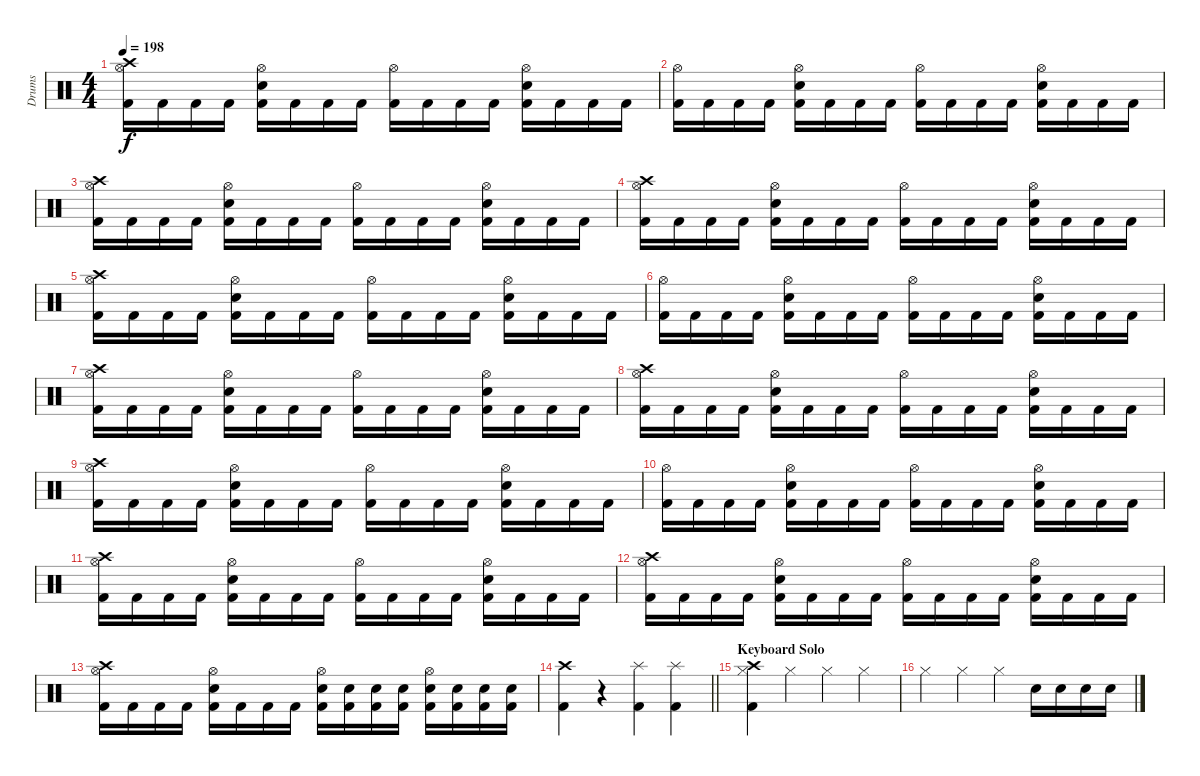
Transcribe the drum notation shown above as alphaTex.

\track ("Drums" "Drums") {instrument percussion}
\staff {score}
\articulation defaults
\ts (4 4)
\tempo 198
\clef neutral
\ks c
("Crash high (hit)" "Hi-Hat (open)" "Kick (hit) 2").16{dy f} "Kick (hit) 2".16 "Kick (hit) 2".16 "Kick (hit) 2".16 ("Hi-Hat (open)" "Snare (hit) 2" "Kick (hit) 2").16 "Kick (hit) 2".16 "Kick (hit) 2".16 "Kick (hit) 2".16 ("Hi-Hat (open)" "Kick (hit) 2").16 "Kick (hit) 2".16 "Kick (hit) 2".16 "Kick (hit) 2".16 ("Hi-Hat (open)" "Snare (hit) 2" "Kick (hit) 2").16 "Kick (hit) 2".16 "Kick (hit) 2".16 "Kick (hit) 2".16 |
("Hi-Hat (open)" "Kick (hit) 2").16 "Kick (hit) 2".16 "Kick (hit) 2".16 "Kick (hit) 2".16 ("Hi-Hat (open)" "Snare (hit) 2" "Kick (hit) 2").16 "Kick (hit) 2".16 "Kick (hit) 2".16 "Kick (hit) 2".16 ("Hi-Hat (open)" "Kick (hit) 2").16 "Kick (hit) 2".16 "Kick (hit) 2".16 "Kick (hit) 2".16 ("Hi-Hat (open)" "Snare (hit) 2" "Kick (hit) 2").16 "Kick (hit) 2".16 "Kick (hit) 2".16 "Kick (hit) 2".16 |
("Crash high (hit)" "Hi-Hat (open)" "Kick (hit) 2").16 "Kick (hit) 2".16 "Kick (hit) 2".16 "Kick (hit) 2".16 ("Hi-Hat (open)" "Snare (hit) 2" "Kick (hit) 2").16 "Kick (hit) 2".16 "Kick (hit) 2".16 "Kick (hit) 2".16 ("Hi-Hat (open)" "Kick (hit) 2").16 "Kick (hit) 2".16 "Kick (hit) 2".16 "Kick (hit) 2".16 ("Hi-Hat (open)" "Snare (hit) 2" "Kick (hit) 2").16 "Kick (hit) 2".16 "Kick (hit) 2".16 "Kick (hit) 2".16 |
("Crash high (hit)" "Hi-Hat (open)" "Kick (hit) 2").16 "Kick (hit) 2".16 "Kick (hit) 2".16 "Kick (hit) 2".16 ("Hi-Hat (open)" "Snare (hit) 2" "Kick (hit) 2").16 "Kick (hit) 2".16 "Kick (hit) 2".16 "Kick (hit) 2".16 ("Hi-Hat (open)" "Kick (hit) 2").16 "Kick (hit) 2".16 "Kick (hit) 2".16 "Kick (hit) 2".16 ("Hi-Hat (open)" "Snare (hit) 2" "Kick (hit) 2").16 "Kick (hit) 2".16 "Kick (hit) 2".16 "Kick (hit) 2".16 |
("Crash high (hit)" "Hi-Hat (open)" "Kick (hit) 2").16 "Kick (hit) 2".16 "Kick (hit) 2".16 "Kick (hit) 2".16 ("Hi-Hat (open)" "Snare (hit) 2" "Kick (hit) 2").16 "Kick (hit) 2".16 "Kick (hit) 2".16 "Kick (hit) 2".16 ("Hi-Hat (open)" "Kick (hit) 2").16 "Kick (hit) 2".16 "Kick (hit) 2".16 "Kick (hit) 2".16 ("Hi-Hat (open)" "Snare (hit) 2" "Kick (hit) 2").16 "Kick (hit) 2".16 "Kick (hit) 2".16 "Kick (hit) 2".16 |
("Hi-Hat (open)" "Kick (hit) 2").16 "Kick (hit) 2".16 "Kick (hit) 2".16 "Kick (hit) 2".16 ("Hi-Hat (open)" "Snare (hit) 2" "Kick (hit) 2").16 "Kick (hit) 2".16 "Kick (hit) 2".16 "Kick (hit) 2".16 ("Hi-Hat (open)" "Kick (hit) 2").16 "Kick (hit) 2".16 "Kick (hit) 2".16 "Kick (hit) 2".16 ("Hi-Hat (open)" "Snare (hit) 2" "Kick (hit) 2").16 "Kick (hit) 2".16 "Kick (hit) 2".16 "Kick (hit) 2".16 |
("Crash high (hit)" "Hi-Hat (open)" "Kick (hit) 2").16 "Kick (hit) 2".16 "Kick (hit) 2".16 "Kick (hit) 2".16 ("Hi-Hat (open)" "Snare (hit) 2" "Kick (hit) 2").16 "Kick (hit) 2".16 "Kick (hit) 2".16 "Kick (hit) 2".16 ("Hi-Hat (open)" "Kick (hit) 2").16 "Kick (hit) 2".16 "Kick (hit) 2".16 "Kick (hit) 2".16 ("Hi-Hat (open)" "Snare (hit) 2" "Kick (hit) 2").16 "Kick (hit) 2".16 "Kick (hit) 2".16 "Kick (hit) 2".16 |
("Crash high (hit)" "Hi-Hat (open)" "Kick (hit) 2").16 "Kick (hit) 2".16 "Kick (hit) 2".16 "Kick (hit) 2".16 ("Hi-Hat (open)" "Snare (hit) 2" "Kick (hit) 2").16 "Kick (hit) 2".16 "Kick (hit) 2".16 "Kick (hit) 2".16 ("Hi-Hat (open)" "Kick (hit) 2").16 "Kick (hit) 2".16 "Kick (hit) 2".16 "Kick (hit) 2".16 ("Hi-Hat (open)" "Snare (hit) 2" "Kick (hit) 2").16 "Kick (hit) 2".16 "Kick (hit) 2".16 "Kick (hit) 2".16 |
("Crash high (hit)" "Hi-Hat (open)" "Kick (hit) 2").16 "Kick (hit) 2".16 "Kick (hit) 2".16 "Kick (hit) 2".16 ("Hi-Hat (open)" "Snare (hit) 2" "Kick (hit) 2").16 "Kick (hit) 2".16 "Kick (hit) 2".16 "Kick (hit) 2".16 ("Hi-Hat (open)" "Kick (hit) 2").16 "Kick (hit) 2".16 "Kick (hit) 2".16 "Kick (hit) 2".16 ("Hi-Hat (open)" "Snare (hit) 2" "Kick (hit) 2").16 "Kick (hit) 2".16 "Kick (hit) 2".16 "Kick (hit) 2".16 |
("Hi-Hat (open)" "Kick (hit) 2").16 "Kick (hit) 2".16 "Kick (hit) 2".16 "Kick (hit) 2".16 ("Hi-Hat (open)" "Snare (hit) 2" "Kick (hit) 2").16 "Kick (hit) 2".16 "Kick (hit) 2".16 "Kick (hit) 2".16 ("Hi-Hat (open)" "Kick (hit) 2").16 "Kick (hit) 2".16 "Kick (hit) 2".16 "Kick (hit) 2".16 ("Hi-Hat (open)" "Snare (hit) 2" "Kick (hit) 2").16 "Kick (hit) 2".16 "Kick (hit) 2".16 "Kick (hit) 2".16 |
("Crash high (hit)" "Hi-Hat (open)" "Kick (hit) 2").16 "Kick (hit) 2".16 "Kick (hit) 2".16 "Kick (hit) 2".16 ("Hi-Hat (open)" "Snare (hit) 2" "Kick (hit) 2").16 "Kick (hit) 2".16 "Kick (hit) 2".16 "Kick (hit) 2".16 ("Hi-Hat (open)" "Kick (hit) 2").16 "Kick (hit) 2".16 "Kick (hit) 2".16 "Kick (hit) 2".16 ("Hi-Hat (open)" "Snare (hit) 2" "Kick (hit) 2").16 "Kick (hit) 2".16 "Kick (hit) 2".16 "Kick (hit) 2".16 |
("Crash high (hit)" "Hi-Hat (open)" "Kick (hit) 2").16 "Kick (hit) 2".16 "Kick (hit) 2".16 "Kick (hit) 2".16 ("Hi-Hat (open)" "Snare (hit) 2" "Kick (hit) 2").16 "Kick (hit) 2".16 "Kick (hit) 2".16 "Kick (hit) 2".16 ("Hi-Hat (open)" "Kick (hit) 2").16 "Kick (hit) 2".16 "Kick (hit) 2".16 "Kick (hit) 2".16 ("Hi-Hat (open)" "Snare (hit) 2" "Kick (hit) 2").16 "Kick (hit) 2".16 "Kick (hit) 2".16 "Kick (hit) 2".16 |
("Crash high (hit)" "Hi-Hat (open)" "Kick (hit) 2").16 "Kick (hit) 2".16 "Kick (hit) 2".16 "Kick (hit) 2".16 ("Hi-Hat (open)" "Snare (hit) 2" "Kick (hit) 2").16 "Kick (hit) 2".16 "Kick (hit) 2".16 "Kick (hit) 2".16 ("Hi-Hat (open)" "Snare (hit) 2" "Kick (hit) 2").16 ("Snare (hit) 2" "Kick (hit) 2").16 ("Snare (hit) 2" "Kick (hit) 2").16 ("Snare (hit) 2" "Kick (hit) 2").16 ("Hi-Hat (open)" "Snare (hit) 2" "Kick (hit) 2").16 ("Snare (hit) 2" "Kick (hit) 2").16 ("Snare (hit) 2" "Kick (hit) 2").16 ("Snare (hit) 2" "Kick (hit) 2").16 |
\barLineRight lightlight
("Crash high (hit)" "Kick (hit) 2").4 r.4 ("Splash (hit)" "Kick (hit) 2").4 ("Splash (hit)" "Kick (hit) 2").4 |
\section ("" "Keyboard Solo")
("Crash high (hit)" "Hi-Hat (closed)" "Kick (hit) 2").4 "Hi-Hat (closed)".4 "Hi-Hat (closed)".4 "Hi-Hat (closed)".4 |
"Hi-Hat (closed)".4 "Hi-Hat (closed)".4 "Hi-Hat (closed)".4 "Snare (hit) 2".16 "Snare (hit) 2".16 "Snare (hit) 2".16 "Snare (hit) 2".16
